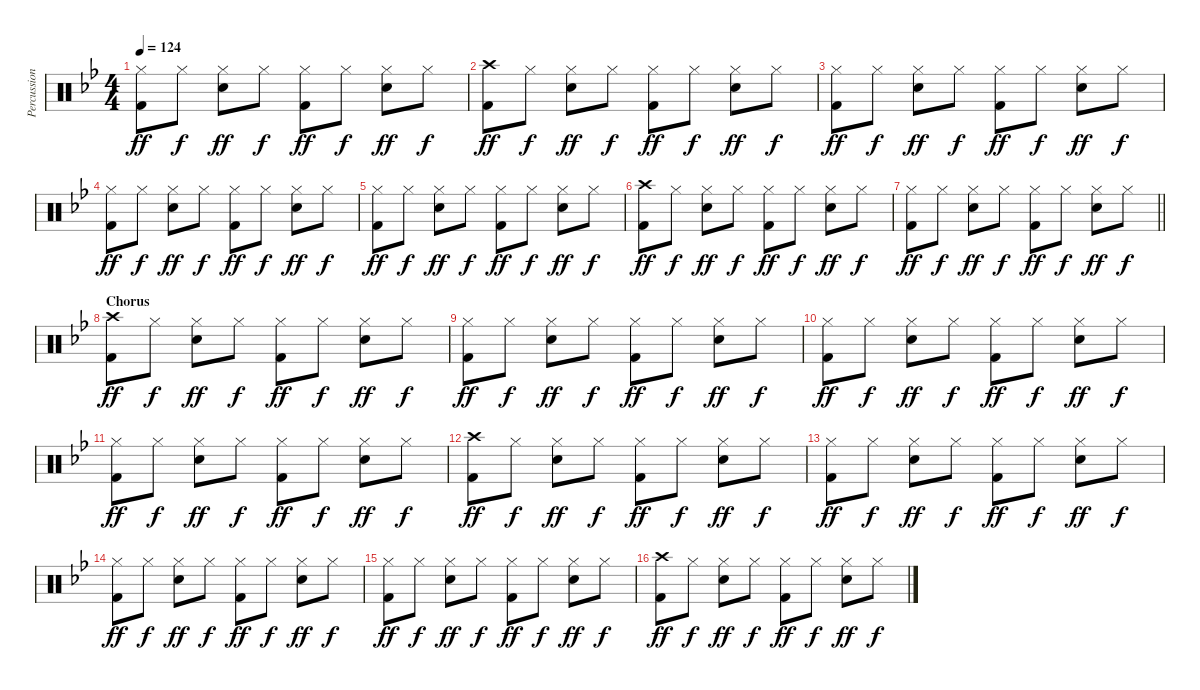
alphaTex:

\track ("Percussion" "Percussion") {instrument percussion}
\staff {score}
\articulation defaults
\ts (4 4)
\tempo 124
\clef neutral
\ks gminor
("Hi-Hat (closed)" "Kick (hit) 2").8{dy ff} "Hi-Hat (closed)".8{dy f} ("Hi-Hat (closed)" "Electric Snare (hit)").8{dy ff} "Hi-Hat (closed)".8{dy f} ("Hi-Hat (closed)" "Kick (hit) 2").8{dy ff} "Hi-Hat (closed)".8{dy f} ("Hi-Hat (closed)" "Electric Snare (hit)").8{dy ff} "Hi-Hat (closed)".8{dy f} |
("Crash high (hit)" "Kick (hit) 2").8{dy ff} "Hi-Hat (closed)".8{dy f} ("Hi-Hat (closed)" "Electric Snare (hit)").8{dy ff} "Hi-Hat (closed)".8{dy f} ("Hi-Hat (closed)" "Kick (hit) 2").8{dy ff} "Hi-Hat (closed)".8{dy f} ("Hi-Hat (closed)" "Electric Snare (hit)").8{dy ff} "Hi-Hat (closed)".8{dy f} |
("Hi-Hat (closed)" "Kick (hit) 2").8{dy ff} "Hi-Hat (closed)".8{dy f} ("Hi-Hat (closed)" "Electric Snare (hit)").8{dy ff} "Hi-Hat (closed)".8{dy f} ("Hi-Hat (closed)" "Kick (hit) 2").8{dy ff} "Hi-Hat (closed)".8{dy f} ("Hi-Hat (closed)" "Electric Snare (hit)").8{dy ff} "Hi-Hat (closed)".8{dy f} |
("Hi-Hat (closed)" "Kick (hit) 2").8{dy ff} "Hi-Hat (closed)".8{dy f} ("Hi-Hat (closed)" "Electric Snare (hit)").8{dy ff} "Hi-Hat (closed)".8{dy f} ("Hi-Hat (closed)" "Kick (hit) 2").8{dy ff} "Hi-Hat (closed)".8{dy f} ("Hi-Hat (closed)" "Electric Snare (hit)").8{dy ff} "Hi-Hat (closed)".8{dy f} |
("Hi-Hat (closed)" "Kick (hit) 2").8{dy ff} "Hi-Hat (closed)".8{dy f} ("Hi-Hat (closed)" "Electric Snare (hit)").8{dy ff} "Hi-Hat (closed)".8{dy f} ("Hi-Hat (closed)" "Kick (hit) 2").8{dy ff} "Hi-Hat (closed)".8{dy f} ("Hi-Hat (closed)" "Electric Snare (hit)").8{dy ff} "Hi-Hat (closed)".8{dy f} |
("Crash high (hit)" "Kick (hit) 2").8{dy ff} "Hi-Hat (closed)".8{dy f} ("Hi-Hat (closed)" "Electric Snare (hit)").8{dy ff} "Hi-Hat (closed)".8{dy f} ("Hi-Hat (closed)" "Kick (hit) 2").8{dy ff} "Hi-Hat (closed)".8{dy f} ("Hi-Hat (closed)" "Electric Snare (hit)").8{dy ff} "Hi-Hat (closed)".8{dy f} |
\barLineRight lightlight
("Hi-Hat (closed)" "Kick (hit) 2").8{dy ff} "Hi-Hat (closed)".8{dy f} ("Hi-Hat (closed)" "Electric Snare (hit)").8{dy ff} "Hi-Hat (closed)".8{dy f} ("Hi-Hat (closed)" "Kick (hit) 2").8{dy ff} "Hi-Hat (closed)".8{dy f} ("Hi-Hat (closed)" "Electric Snare (hit)").8{dy ff} "Hi-Hat (closed)".8{dy f} |
\section ("" "Chorus")
("Crash high (hit)" "Kick (hit) 2").8{dy ff} "Hi-Hat (closed)".8{dy f} ("Hi-Hat (closed)" "Electric Snare (hit)").8{dy ff} "Hi-Hat (closed)".8{dy f} ("Hi-Hat (closed)" "Kick (hit) 2").8{dy ff} "Hi-Hat (closed)".8{dy f} ("Hi-Hat (closed)" "Electric Snare (hit)").8{dy ff} "Hi-Hat (closed)".8{dy f} |
("Hi-Hat (closed)" "Kick (hit) 2").8{dy ff} "Hi-Hat (closed)".8{dy f} ("Hi-Hat (closed)" "Electric Snare (hit)").8{dy ff} "Hi-Hat (closed)".8{dy f} ("Hi-Hat (closed)" "Kick (hit) 2").8{dy ff} "Hi-Hat (closed)".8{dy f} ("Hi-Hat (closed)" "Electric Snare (hit)").8{dy ff} "Hi-Hat (closed)".8{dy f} |
("Hi-Hat (closed)" "Kick (hit) 2").8{dy ff} "Hi-Hat (closed)".8{dy f} ("Hi-Hat (closed)" "Electric Snare (hit)").8{dy ff} "Hi-Hat (closed)".8{dy f} ("Hi-Hat (closed)" "Kick (hit) 2").8{dy ff} "Hi-Hat (closed)".8{dy f} ("Hi-Hat (closed)" "Electric Snare (hit)").8{dy ff} "Hi-Hat (closed)".8{dy f} |
("Hi-Hat (closed)" "Kick (hit) 2").8{dy ff} "Hi-Hat (closed)".8{dy f} ("Hi-Hat (closed)" "Electric Snare (hit)").8{dy ff} "Hi-Hat (closed)".8{dy f} ("Hi-Hat (closed)" "Kick (hit) 2").8{dy ff} "Hi-Hat (closed)".8{dy f} ("Hi-Hat (closed)" "Electric Snare (hit)").8{dy ff} "Hi-Hat (closed)".8{dy f} |
("Crash high (hit)" "Kick (hit) 2").8{dy ff} "Hi-Hat (closed)".8{dy f} ("Hi-Hat (closed)" "Electric Snare (hit)").8{dy ff} "Hi-Hat (closed)".8{dy f} ("Hi-Hat (closed)" "Kick (hit) 2").8{dy ff} "Hi-Hat (closed)".8{dy f} ("Hi-Hat (closed)" "Electric Snare (hit)").8{dy ff} "Hi-Hat (closed)".8{dy f} |
("Hi-Hat (closed)" "Kick (hit) 2").8{dy ff} "Hi-Hat (closed)".8{dy f} ("Hi-Hat (closed)" "Electric Snare (hit)").8{dy ff} "Hi-Hat (closed)".8{dy f} ("Hi-Hat (closed)" "Kick (hit) 2").8{dy ff} "Hi-Hat (closed)".8{dy f} ("Hi-Hat (closed)" "Electric Snare (hit)").8{dy ff} "Hi-Hat (closed)".8{dy f} |
("Hi-Hat (closed)" "Kick (hit) 2").8{dy ff} "Hi-Hat (closed)".8{dy f} ("Hi-Hat (closed)" "Electric Snare (hit)").8{dy ff} "Hi-Hat (closed)".8{dy f} ("Hi-Hat (closed)" "Kick (hit) 2").8{dy ff} "Hi-Hat (closed)".8{dy f} ("Hi-Hat (closed)" "Electric Snare (hit)").8{dy ff} "Hi-Hat (closed)".8{dy f} |
("Hi-Hat (closed)" "Kick (hit) 2").8{dy ff} "Hi-Hat (closed)".8{dy f} ("Hi-Hat (closed)" "Electric Snare (hit)").8{dy ff} "Hi-Hat (closed)".8{dy f} ("Hi-Hat (closed)" "Kick (hit) 2").8{dy ff} "Hi-Hat (closed)".8{dy f} ("Hi-Hat (closed)" "Electric Snare (hit)").8{dy ff} "Hi-Hat (closed)".8{dy f} |
("Crash high (hit)" "Kick (hit) 2").8{dy ff} "Hi-Hat (closed)".8{dy f} ("Hi-Hat (closed)" "Electric Snare (hit)").8{dy ff} "Hi-Hat (closed)".8{dy f} ("Hi-Hat (closed)" "Kick (hit) 2").8{dy ff} "Hi-Hat (closed)".8{dy f} ("Hi-Hat (closed)" "Electric Snare (hit)").8{dy ff} "Hi-Hat (closed)".8{dy f}
